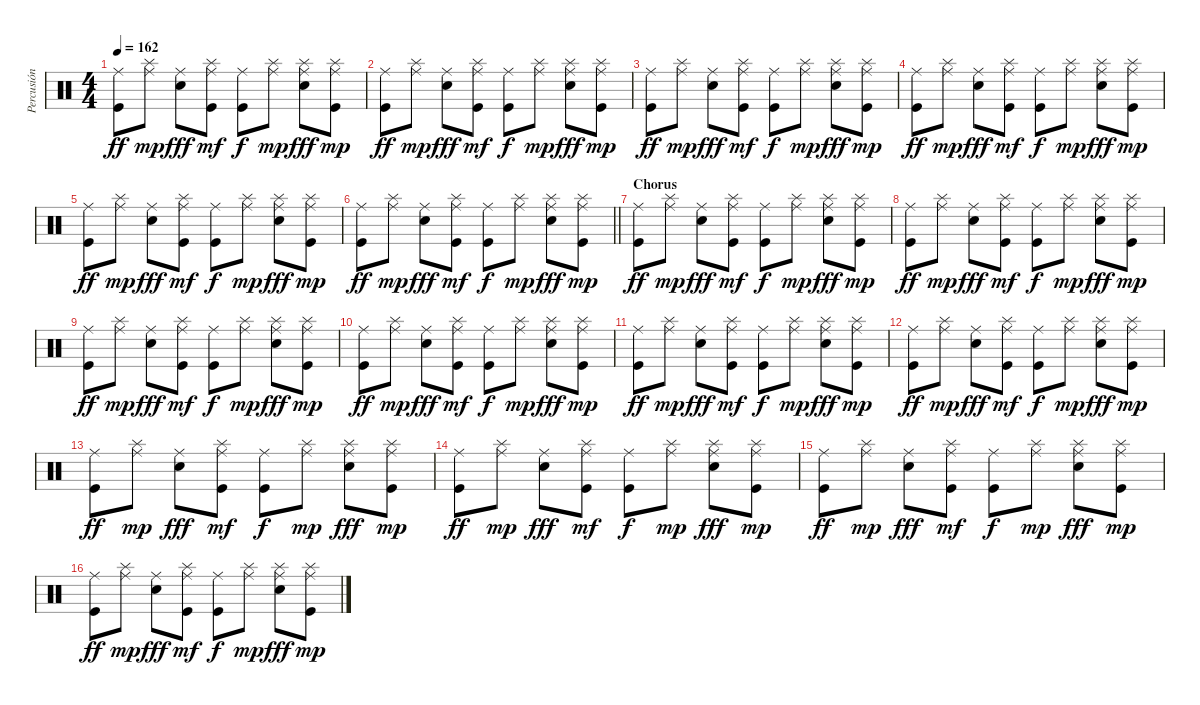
\track ("Percusión" "Percusión") {instrument percussion}
\staff {score}
\articulation defaults
\ts (4 4)
\tempo 162
\clef neutral
\ks c
("Ride (middle)" "Kick (hit)").8{dy ff} ("Ride (middle)" "Splash (hit)").8{dy mp} ("Ride (middle)" "Snare (hit) 2").8{dy fff} ("Ride (middle)" "Splash (hit)" "Kick (hit)").8{dy mf} ("Ride (middle)" "Kick (hit)").8{dy f} ("Ride (middle)" "Splash (hit)").8{dy mp} ("Ride (middle)" "Splash (hit)" "Snare (hit) 2").8{dy fff} ("Ride (middle)" "Splash (hit)" "Kick (hit)").8{dy mp} |
("Ride (middle)" "Kick (hit)").8{dy ff} ("Ride (middle)" "Splash (hit)").8{dy mp} ("Ride (middle)" "Snare (hit) 2").8{dy fff} ("Ride (middle)" "Splash (hit)" "Kick (hit)").8{dy mf} ("Ride (middle)" "Kick (hit)").8{dy f} ("Ride (middle)" "Splash (hit)").8{dy mp} ("Ride (middle)" "Splash (hit)" "Snare (hit) 2").8{dy fff} ("Ride (middle)" "Splash (hit)" "Kick (hit)").8{dy mp} |
("Ride (middle)" "Kick (hit)").8{dy ff} ("Ride (middle)" "Splash (hit)").8{dy mp} ("Ride (middle)" "Snare (hit) 2").8{dy fff} ("Ride (middle)" "Splash (hit)" "Kick (hit)").8{dy mf} ("Ride (middle)" "Kick (hit)").8{dy f} ("Ride (middle)" "Splash (hit)").8{dy mp} ("Ride (middle)" "Splash (hit)" "Snare (hit) 2").8{dy fff} ("Ride (middle)" "Splash (hit)" "Kick (hit)").8{dy mp} |
("Ride (middle)" "Kick (hit)").8{dy ff} ("Ride (middle)" "Splash (hit)").8{dy mp} ("Ride (middle)" "Snare (hit) 2").8{dy fff} ("Ride (middle)" "Splash (hit)" "Kick (hit)").8{dy mf} ("Ride (middle)" "Kick (hit)").8{dy f} ("Ride (middle)" "Splash (hit)").8{dy mp} ("Ride (middle)" "Splash (hit)" "Snare (hit) 2").8{dy fff} ("Ride (middle)" "Splash (hit)" "Kick (hit)").8{dy mp} |
("Ride (middle)" "Kick (hit)").8{dy ff} ("Ride (middle)" "Splash (hit)").8{dy mp} ("Ride (middle)" "Snare (hit) 2").8{dy fff} ("Ride (middle)" "Splash (hit)" "Kick (hit)").8{dy mf} ("Ride (middle)" "Kick (hit)").8{dy f} ("Ride (middle)" "Splash (hit)").8{dy mp} ("Ride (middle)" "Splash (hit)" "Snare (hit) 2").8{dy fff} ("Ride (middle)" "Splash (hit)" "Kick (hit)").8{dy mp} |
\barLineRight lightlight
("Ride (middle)" "Kick (hit)").8{dy ff} ("Ride (middle)" "Splash (hit)").8{dy mp} ("Ride (middle)" "Snare (hit) 2").8{dy fff} ("Ride (middle)" "Splash (hit)" "Kick (hit)").8{dy mf} ("Ride (middle)" "Kick (hit)").8{dy f} ("Ride (middle)" "Splash (hit)").8{dy mp} ("Ride (middle)" "Splash (hit)" "Snare (hit) 2").8{dy fff} ("Ride (middle)" "Splash (hit)" "Kick (hit)").8{dy mp} |
\section ("" "Chorus")
("Ride (middle)" "Kick (hit)").8{dy ff} ("Ride (middle)" "Splash (hit)").8{dy mp} ("Ride (middle)" "Snare (hit) 2").8{dy fff} ("Ride (middle)" "Splash (hit)" "Kick (hit)").8{dy mf} ("Ride (middle)" "Kick (hit)").8{dy f} ("Ride (middle)" "Splash (hit)").8{dy mp} ("Ride (middle)" "Splash (hit)" "Snare (hit) 2").8{dy fff} ("Ride (middle)" "Splash (hit)" "Kick (hit)").8{dy mp} |
("Ride (middle)" "Kick (hit)").8{dy ff} ("Ride (middle)" "Splash (hit)").8{dy mp} ("Ride (middle)" "Snare (hit) 2").8{dy fff} ("Ride (middle)" "Splash (hit)" "Kick (hit)").8{dy mf} ("Ride (middle)" "Kick (hit)").8{dy f} ("Ride (middle)" "Splash (hit)").8{dy mp} ("Ride (middle)" "Splash (hit)" "Snare (hit) 2").8{dy fff} ("Ride (middle)" "Splash (hit)" "Kick (hit)").8{dy mp} |
("Ride (middle)" "Kick (hit)").8{dy ff} ("Ride (middle)" "Splash (hit)").8{dy mp} ("Ride (middle)" "Snare (hit) 2").8{dy fff} ("Ride (middle)" "Splash (hit)" "Kick (hit)").8{dy mf} ("Ride (middle)" "Kick (hit)").8{dy f} ("Ride (middle)" "Splash (hit)").8{dy mp} ("Ride (middle)" "Splash (hit)" "Snare (hit) 2").8{dy fff} ("Ride (middle)" "Splash (hit)" "Kick (hit)").8{dy mp} |
("Ride (middle)" "Kick (hit)").8{dy ff} ("Ride (middle)" "Splash (hit)").8{dy mp} ("Ride (middle)" "Snare (hit) 2").8{dy fff} ("Ride (middle)" "Splash (hit)" "Kick (hit)").8{dy mf} ("Ride (middle)" "Kick (hit)").8{dy f} ("Ride (middle)" "Splash (hit)").8{dy mp} ("Ride (middle)" "Splash (hit)" "Snare (hit) 2").8{dy fff} ("Ride (middle)" "Splash (hit)" "Kick (hit)").8{dy mp} |
("Ride (middle)" "Kick (hit)").8{dy ff} ("Ride (middle)" "Splash (hit)").8{dy mp} ("Ride (middle)" "Snare (hit) 2").8{dy fff} ("Ride (middle)" "Splash (hit)" "Kick (hit)").8{dy mf} ("Ride (middle)" "Kick (hit)").8{dy f} ("Ride (middle)" "Splash (hit)").8{dy mp} ("Ride (middle)" "Splash (hit)" "Snare (hit) 2").8{dy fff} ("Ride (middle)" "Splash (hit)" "Kick (hit)").8{dy mp} |
("Ride (middle)" "Kick (hit)").8{dy ff} ("Ride (middle)" "Splash (hit)").8{dy mp} ("Ride (middle)" "Snare (hit) 2").8{dy fff} ("Ride (middle)" "Splash (hit)" "Kick (hit)").8{dy mf} ("Ride (middle)" "Kick (hit)").8{dy f} ("Ride (middle)" "Splash (hit)").8{dy mp} ("Ride (middle)" "Splash (hit)" "Snare (hit) 2").8{dy fff} ("Ride (middle)" "Splash (hit)" "Kick (hit)").8{dy mp} |
("Ride (middle)" "Kick (hit)").8{dy ff} ("Ride (middle)" "Splash (hit)").8{dy mp} ("Ride (middle)" "Snare (hit) 2").8{dy fff} ("Ride (middle)" "Splash (hit)" "Kick (hit)").8{dy mf} ("Ride (middle)" "Kick (hit)").8{dy f} ("Ride (middle)" "Splash (hit)").8{dy mp} ("Ride (middle)" "Splash (hit)" "Snare (hit) 2").8{dy fff} ("Ride (middle)" "Splash (hit)" "Kick (hit)").8{dy mp} |
("Ride (middle)" "Kick (hit)").8{dy ff} ("Ride (middle)" "Splash (hit)").8{dy mp} ("Ride (middle)" "Snare (hit) 2").8{dy fff} ("Ride (middle)" "Splash (hit)" "Kick (hit)").8{dy mf} ("Ride (middle)" "Kick (hit)").8{dy f} ("Ride (middle)" "Splash (hit)").8{dy mp} ("Ride (middle)" "Splash (hit)" "Snare (hit) 2").8{dy fff} ("Ride (middle)" "Splash (hit)" "Kick (hit)").8{dy mp} |
("Ride (middle)" "Kick (hit)").8{dy ff} ("Ride (middle)" "Splash (hit)").8{dy mp} ("Ride (middle)" "Snare (hit) 2").8{dy fff} ("Ride (middle)" "Splash (hit)" "Kick (hit)").8{dy mf} ("Ride (middle)" "Kick (hit)").8{dy f} ("Ride (middle)" "Splash (hit)").8{dy mp} ("Ride (middle)" "Splash (hit)" "Snare (hit) 2").8{dy fff} ("Ride (middle)" "Splash (hit)" "Kick (hit)").8{dy mp} |
("Ride (middle)" "Kick (hit)").8{dy ff} ("Ride (middle)" "Splash (hit)").8{dy mp} ("Ride (middle)" "Snare (hit) 2").8{dy fff} ("Ride (middle)" "Splash (hit)" "Kick (hit)").8{dy mf} ("Ride (middle)" "Kick (hit)").8{dy f} ("Ride (middle)" "Splash (hit)").8{dy mp} ("Ride (middle)" "Splash (hit)" "Snare (hit) 2").8{dy fff} ("Ride (middle)" "Splash (hit)" "Kick (hit)").8{dy mp}
